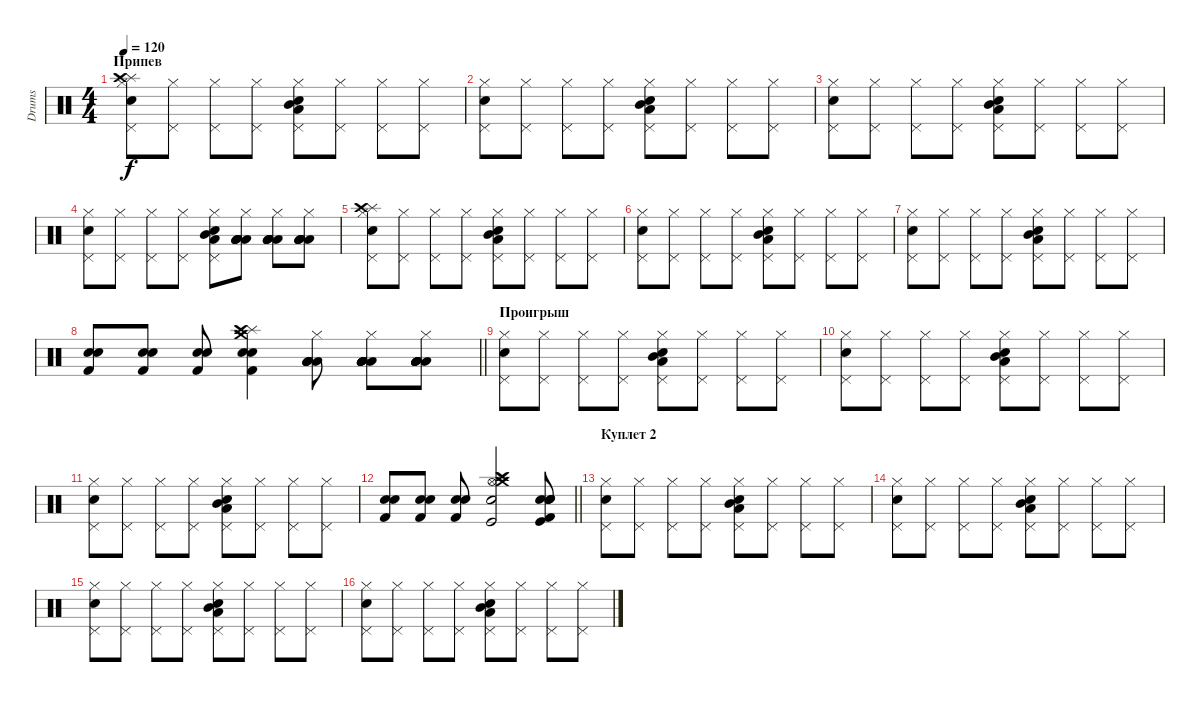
\track ("Drums" "Drums") {instrument percussion}
\staff {score}
\articulation defaults
\ts (4 4)
\section ("" "Припев")
\tempo 120
\clef neutral
\ks c
("Hi-Hat (closed)" "Pedal Hi-Hat (hit)" "Snare (hit) 2" "Splash (hit)" "Crash high (hit)").8{dy f} ("Hi-Hat (closed)" "Pedal Hi-Hat (hit)").8 ("Hi-Hat (closed)" "Pedal Hi-Hat (hit)").8 ("Hi-Hat (closed)" "Pedal Hi-Hat (hit)").8 ("Hi-Hat (closed)" "Pedal Hi-Hat (hit)" "Mid Tom (hit)" "Low Floor Tom (hit)" "Electric Snare (hit)").8 ("Hi-Hat (closed)" "Pedal Hi-Hat (hit)").8 ("Hi-Hat (closed)" "Pedal Hi-Hat (hit)").8 ("Hi-Hat (closed)" "Pedal Hi-Hat (hit)").8 |
("Hi-Hat (closed)" "Pedal Hi-Hat (hit)" "Snare (hit) 2").8 ("Hi-Hat (closed)" "Pedal Hi-Hat (hit)").8 ("Hi-Hat (closed)" "Pedal Hi-Hat (hit)").8 ("Hi-Hat (closed)" "Pedal Hi-Hat (hit)").8 ("Hi-Hat (closed)" "Pedal Hi-Hat (hit)" "Mid Tom (hit)" "Low Floor Tom (hit)" "Electric Snare (hit)").8 ("Hi-Hat (closed)" "Pedal Hi-Hat (hit)").8 ("Hi-Hat (closed)" "Pedal Hi-Hat (hit)").8 ("Hi-Hat (closed)" "Pedal Hi-Hat (hit)").8 |
("Hi-Hat (closed)" "Pedal Hi-Hat (hit)" "Snare (hit) 2").8 ("Hi-Hat (closed)" "Pedal Hi-Hat (hit)").8 ("Hi-Hat (closed)" "Pedal Hi-Hat (hit)").8 ("Hi-Hat (closed)" "Pedal Hi-Hat (hit)").8 ("Hi-Hat (closed)" "Pedal Hi-Hat (hit)" "Mid Tom (hit)" "Low Floor Tom (hit)" "Electric Snare (hit)").8 ("Hi-Hat (closed)" "Pedal Hi-Hat (hit)").8 ("Hi-Hat (closed)" "Pedal Hi-Hat (hit)").8 ("Hi-Hat (closed)" "Pedal Hi-Hat (hit)").8 |
("Hi-Hat (closed)" "Pedal Hi-Hat (hit)" "Snare (hit) 2").8 ("Hi-Hat (closed)" "Pedal Hi-Hat (hit)").8 ("Hi-Hat (closed)" "Pedal Hi-Hat (hit)").8 ("Hi-Hat (closed)" "Pedal Hi-Hat (hit)").8 ("Hi-Hat (closed)" "Pedal Hi-Hat (hit)" "Mid Tom (hit)" "Low Floor Tom (hit)" "Electric Snare (hit)").8 ("Hi-Hat (closed)" "Low Tom (hit)" "Low Tom (hit)" "Low Tom (hit)" "Low Tom (hit)" "Low Tom (hit)").8 ("Hi-Hat (closed)" "Low Tom (hit)" "Low Tom (hit)" "Low Tom (hit)" "Low Tom (hit)" "Low Tom (hit)").8 ("Hi-Hat (closed)" "Low Tom (hit)" "Low Tom (hit)" "Low Tom (hit)" "Low Tom (hit)" "Low Tom (hit)").8 |
("Hi-Hat (closed)" "Pedal Hi-Hat (hit)" "Snare (hit) 2" "Splash (hit)" "Crash high (hit)").8 ("Hi-Hat (closed)" "Pedal Hi-Hat (hit)").8 ("Hi-Hat (closed)" "Pedal Hi-Hat (hit)").8 ("Hi-Hat (closed)" "Pedal Hi-Hat (hit)").8 ("Hi-Hat (closed)" "Pedal Hi-Hat (hit)" "Mid Tom (hit)" "Low Floor Tom (hit)" "Electric Snare (hit)").8 ("Hi-Hat (closed)" "Pedal Hi-Hat (hit)").8 ("Hi-Hat (closed)" "Pedal Hi-Hat (hit)").8 ("Hi-Hat (closed)" "Pedal Hi-Hat (hit)").8 |
("Hi-Hat (closed)" "Pedal Hi-Hat (hit)" "Snare (hit) 2").8 ("Hi-Hat (closed)" "Pedal Hi-Hat (hit)").8 ("Hi-Hat (closed)" "Pedal Hi-Hat (hit)").8 ("Hi-Hat (closed)" "Pedal Hi-Hat (hit)").8 ("Hi-Hat (closed)" "Pedal Hi-Hat (hit)" "Mid Tom (hit)" "Low Floor Tom (hit)" "Electric Snare (hit)").8 ("Hi-Hat (closed)" "Pedal Hi-Hat (hit)").8 ("Hi-Hat (closed)" "Pedal Hi-Hat (hit)").8 ("Hi-Hat (closed)" "Pedal Hi-Hat (hit)").8 |
("Hi-Hat (closed)" "Pedal Hi-Hat (hit)" "Snare (hit) 2").8 ("Hi-Hat (closed)" "Pedal Hi-Hat (hit)").8 ("Hi-Hat (closed)" "Pedal Hi-Hat (hit)").8 ("Hi-Hat (closed)" "Pedal Hi-Hat (hit)").8 ("Hi-Hat (closed)" "Pedal Hi-Hat (hit)" "Mid Tom (hit)" "Low Floor Tom (hit)" "Electric Snare (hit)").8 ("Hi-Hat (closed)" "Pedal Hi-Hat (hit)").8 ("Hi-Hat (closed)" "Pedal Hi-Hat (hit)").8 ("Hi-Hat (closed)" "Pedal Hi-Hat (hit)").8 |
\barLineRight lightlight
("Kick (hit) 2" "Snare (hit) 2" "Electric Snare (hit)").8 ("Kick (hit) 2" "Snare (hit) 2" "Electric Snare (hit)").8 ("Kick (hit) 2" "Snare (hit) 2" "Electric Snare (hit)").8 ("Kick (hit) 2" "Snare (hit) 2" "Electric Snare (hit)" "Splash (hit)" "Crash medium (hit)" "Crash high (hit)").4 ("Hi-Hat (closed)" "Low Tom (hit)" "Low Tom (hit)" "Low Tom (hit)" "Low Tom (hit)" "Low Tom (hit)").8 ("Hi-Hat (closed)" "Low Tom (hit)" "Low Tom (hit)" "Low Tom (hit)" "Low Tom (hit)" "Low Tom (hit)").8 ("Hi-Hat (closed)" "Low Tom (hit)" "Low Tom (hit)" "Low Tom (hit)" "Low Tom (hit)" "Low Tom (hit)").8 |
\section ("" "Проигрыш")
("Hi-Hat (closed)" "Pedal Hi-Hat (hit)" "Snare (hit) 2").8 ("Hi-Hat (closed)" "Pedal Hi-Hat (hit)").8 ("Hi-Hat (closed)" "Pedal Hi-Hat (hit)").8 ("Hi-Hat (closed)" "Pedal Hi-Hat (hit)").8 ("Hi-Hat (closed)" "Pedal Hi-Hat (hit)" "Mid Tom (hit)" "Low Floor Tom (hit)" "Electric Snare (hit)").8 ("Hi-Hat (closed)" "Pedal Hi-Hat (hit)").8 ("Hi-Hat (closed)" "Pedal Hi-Hat (hit)").8 ("Hi-Hat (closed)" "Pedal Hi-Hat (hit)").8 |
("Hi-Hat (closed)" "Pedal Hi-Hat (hit)" "Snare (hit) 2").8 ("Hi-Hat (closed)" "Pedal Hi-Hat (hit)").8 ("Hi-Hat (closed)" "Pedal Hi-Hat (hit)").8 ("Hi-Hat (closed)" "Pedal Hi-Hat (hit)").8 ("Hi-Hat (closed)" "Pedal Hi-Hat (hit)" "Mid Tom (hit)" "Low Floor Tom (hit)" "Electric Snare (hit)").8 ("Hi-Hat (closed)" "Pedal Hi-Hat (hit)").8 ("Hi-Hat (closed)" "Pedal Hi-Hat (hit)").8 ("Hi-Hat (closed)" "Pedal Hi-Hat (hit)").8 |
("Hi-Hat (closed)" "Pedal Hi-Hat (hit)" "Snare (hit) 2").8 ("Hi-Hat (closed)" "Pedal Hi-Hat (hit)").8 ("Hi-Hat (closed)" "Pedal Hi-Hat (hit)").8 ("Hi-Hat (closed)" "Pedal Hi-Hat (hit)").8 ("Hi-Hat (closed)" "Pedal Hi-Hat (hit)" "Mid Tom (hit)" "Low Floor Tom (hit)" "Electric Snare (hit)").8 ("Hi-Hat (closed)" "Pedal Hi-Hat (hit)").8 ("Hi-Hat (closed)" "Pedal Hi-Hat (hit)").8 ("Hi-Hat (closed)" "Pedal Hi-Hat (hit)").8 |
\barLineRight lightlight
("Kick (hit) 2" "Snare (hit) 2" "Electric Snare (hit)").8 ("Kick (hit) 2" "Snare (hit) 2" "Electric Snare (hit)").8 ("Kick (hit) 2" "Snare (hit) 2" "Electric Snare (hit)").8 ("Crash high (hit)" "Hi-Hat (open)" "Splash (hit)" "Crash medium (hit)" "Snare (hit) 2" "Kick (hit)").2 ("Electric Snare (hit)" "Kick (hit) 2" "Electric Snare (hit)" "Snare (hit) 2" "Kick (hit)" "Electric Snare (hit)").8 |
\section ("" "Куплет 2")
("Hi-Hat (closed)" "Pedal Hi-Hat (hit)" "Snare (hit) 2").8 ("Hi-Hat (closed)" "Pedal Hi-Hat (hit)").8 ("Hi-Hat (closed)" "Pedal Hi-Hat (hit)").8 ("Hi-Hat (closed)" "Pedal Hi-Hat (hit)").8 ("Hi-Hat (closed)" "Pedal Hi-Hat (hit)" "Mid Tom (hit)" "Low Floor Tom (hit)" "Electric Snare (hit)").8 ("Hi-Hat (closed)" "Pedal Hi-Hat (hit)").8 ("Hi-Hat (closed)" "Pedal Hi-Hat (hit)").8 ("Hi-Hat (closed)" "Pedal Hi-Hat (hit)").8 |
("Hi-Hat (closed)" "Pedal Hi-Hat (hit)" "Snare (hit) 2").8 ("Hi-Hat (closed)" "Pedal Hi-Hat (hit)").8 ("Hi-Hat (closed)" "Pedal Hi-Hat (hit)").8 ("Hi-Hat (closed)" "Pedal Hi-Hat (hit)").8 ("Hi-Hat (closed)" "Pedal Hi-Hat (hit)" "Mid Tom (hit)" "Low Floor Tom (hit)" "Electric Snare (hit)").8 ("Hi-Hat (closed)" "Pedal Hi-Hat (hit)").8 ("Hi-Hat (closed)" "Pedal Hi-Hat (hit)").8 ("Hi-Hat (closed)" "Pedal Hi-Hat (hit)").8 |
("Hi-Hat (closed)" "Pedal Hi-Hat (hit)" "Snare (hit) 2").8 ("Hi-Hat (closed)" "Pedal Hi-Hat (hit)").8 ("Hi-Hat (closed)" "Pedal Hi-Hat (hit)").8 ("Hi-Hat (closed)" "Pedal Hi-Hat (hit)").8 ("Hi-Hat (closed)" "Pedal Hi-Hat (hit)" "Mid Tom (hit)" "Low Floor Tom (hit)" "Electric Snare (hit)").8 ("Hi-Hat (closed)" "Pedal Hi-Hat (hit)").8 ("Hi-Hat (closed)" "Pedal Hi-Hat (hit)").8 ("Hi-Hat (closed)" "Pedal Hi-Hat (hit)").8 |
("Hi-Hat (closed)" "Pedal Hi-Hat (hit)" "Snare (hit) 2").8 ("Hi-Hat (closed)" "Pedal Hi-Hat (hit)").8 ("Hi-Hat (closed)" "Pedal Hi-Hat (hit)").8 ("Hi-Hat (closed)" "Pedal Hi-Hat (hit)").8 ("Hi-Hat (closed)" "Pedal Hi-Hat (hit)" "Mid Tom (hit)" "Low Floor Tom (hit)" "Electric Snare (hit)").8 ("Hi-Hat (closed)" "Pedal Hi-Hat (hit)").8 ("Hi-Hat (closed)" "Pedal Hi-Hat (hit)").8 ("Hi-Hat (closed)" "Pedal Hi-Hat (hit)").8
